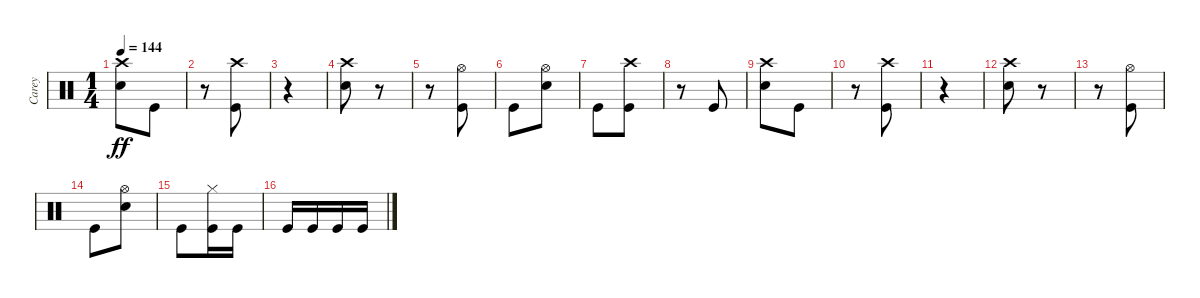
\track ("Carey" "Carey") {instrument percussion}
\staff {score}
\articulation defaults
\ts (1 4)
\tempo 144
\clef neutral
\ks c
("Snare (hit) 2" "Crash high (hit)").8{dy ff} "Kick (hit)".8 |
r.8 ("Kick (hit)" "Crash high (hit)").8 |
r.4 |
("Snare (hit) 2" "Crash high (hit)").8 r.8 |
r.8 ("Kick (hit)" "Hi-Hat (open)").8 |
"Kick (hit)".8 ("Snare (hit) 2" "Hi-Hat (open)").8 |
"Kick (hit)".8 ("Kick (hit)" "Crash high (hit)").8 |
r.8 "Kick (hit)".8 |
("Snare (hit) 2" "Crash high (hit)").8 "Kick (hit)".8 |
r.8 ("Kick (hit)" "Crash high (hit)").8 |
r.4 |
("Snare (hit) 2" "Crash high (hit)").8 r.8 |
r.8 ("Kick (hit)" "Hi-Hat (open)").8 |
"Kick (hit)".8 ("Snare (hit) 2" "Hi-Hat (open)").8 |
"Kick (hit)".8 ("Kick (hit)" "Hi-Hat (closed)").16 "Kick (hit)".16 |
"Kick (hit)".16 "Kick (hit)".16 "Kick (hit)".16 "Kick (hit)".16
